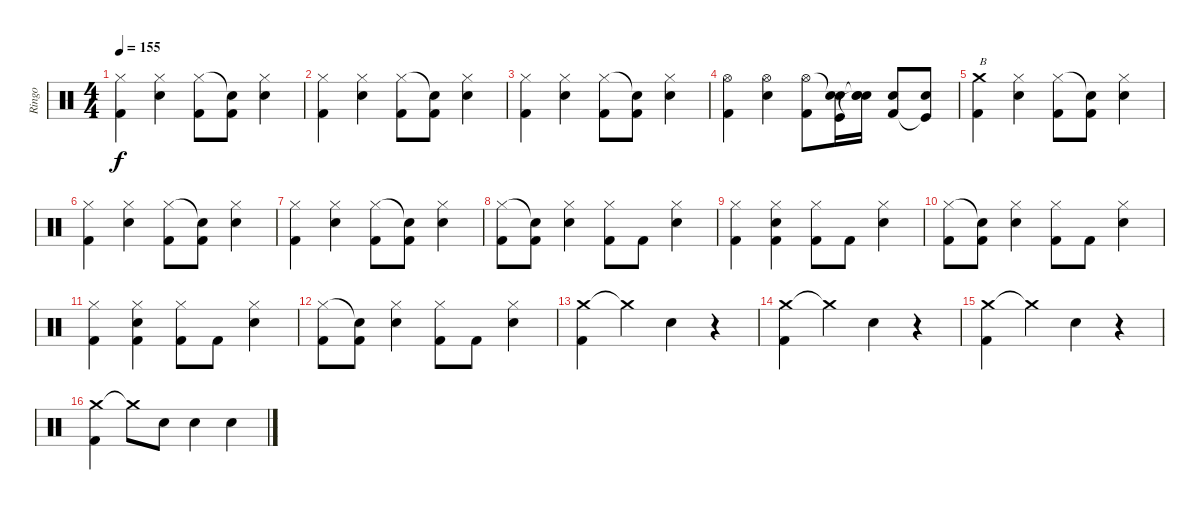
\track ("Ringo" "Ringo") {instrument percussion}
\staff {score}
\articulation defaults
\ts (4 4)
\tempo 155
\clef neutral
\ks c
("Hi-Hat (closed)" "Kick (hit) 2").4{dy f} ("Hi-Hat (closed)" "Snare (hit) 2").4 ("Hi-Hat (closed)" "Kick (hit) 2").8 ("Snare (hit)"{t} "Kick (hit) 2").8 ("Hi-Hat (closed)" "Snare (hit) 2").4 |
("Hi-Hat (closed)" "Kick (hit) 2").4 ("Hi-Hat (closed)" "Snare (hit) 2").4 ("Hi-Hat (closed)" "Kick (hit) 2").8 ("Snare (hit)"{t} "Kick (hit) 2").8 ("Hi-Hat (closed)" "Snare (hit) 2").4 |
("Hi-Hat (closed)" "Kick (hit) 2").4 ("Hi-Hat (closed)" "Snare (hit) 2").4 ("Hi-Hat (closed)" "Kick (hit) 2").8 ("Snare (hit)"{t} "Kick (hit) 2").8 ("Hi-Hat (closed)" "Snare (hit) 2").4 |
("Hi-Hat (open)" "Kick (hit) 2").4 ("Hi-Hat (open)" "Snare (hit) 2").4 ("Hi-Hat (open)" "Kick (hit) 2").8 ("Snare (hit)"{t} "Snare (hit) 2" "Kick (hit)").16 ("Snare (hit)"{t} "Snare (hit) 2" "Snare (hit)"{t}).16 ("Snare (hit) 2" "Kick (hit) 2").8 ("Snare (hit) 2" "Kick (hit)"{t}).8 |
("Crash medium (hit)" "Kick (hit) 2").4{txt "B"} ("Hi-Hat (closed)" "Snare (hit) 2").4 ("Hi-Hat (closed)" "Kick (hit) 2").8 ("Snare (hit)"{t} "Kick (hit) 2").8 ("Hi-Hat (closed)" "Snare (hit) 2").4 |
("Hi-Hat (closed)" "Kick (hit) 2").4{txt " "} ("Hi-Hat (closed)" "Snare (hit) 2").4 ("Hi-Hat (closed)" "Kick (hit) 2").8 ("Snare (hit)"{t} "Kick (hit) 2").8 ("Hi-Hat (closed)" "Snare (hit) 2").4 |
("Hi-Hat (closed)" "Kick (hit) 2").4{txt " "} ("Hi-Hat (closed)" "Snare (hit) 2").4 ("Hi-Hat (closed)" "Kick (hit) 2").8 ("Snare (hit)"{t} "Kick (hit) 2").8 ("Hi-Hat (closed)" "Snare (hit) 2").4 |
("Hi-Hat (closed)" "Kick (hit) 2").8 ("Snare (hit)"{t} "Kick (hit) 2").8 ("Hi-Hat (closed)" "Snare (hit) 2").4 ("Hi-Hat (closed)" "Kick (hit) 2").8 "Kick (hit) 2".8 ("Hi-Hat (closed)" "Snare (hit) 2").4 |
("Hi-Hat (closed)" "Kick (hit) 2").4 ("Hi-Hat (closed)" "Snare (hit) 2" "Kick (hit) 2").4 ("Hi-Hat (closed)" "Kick (hit) 2").8 "Kick (hit) 2".8 ("Hi-Hat (closed)" "Snare (hit) 2").4 |
("Hi-Hat (closed)" "Kick (hit) 2").8 ("Snare (hit)"{t} "Kick (hit) 2").8 ("Hi-Hat (closed)" "Snare (hit) 2").4 ("Hi-Hat (closed)" "Kick (hit) 2").8 "Kick (hit) 2".8 ("Hi-Hat (closed)" "Snare (hit) 2").4 |
("Hi-Hat (closed)" "Kick (hit) 2").4 ("Hi-Hat (closed)" "Snare (hit) 2" "Kick (hit) 2").4 ("Hi-Hat (closed)" "Kick (hit) 2").8 "Kick (hit) 2".8 ("Hi-Hat (closed)" "Snare (hit) 2").4 |
("Hi-Hat (closed)" "Kick (hit) 2").8 ("Snare (hit)"{t} "Kick (hit) 2").8 ("Hi-Hat (closed)" "Snare (hit) 2").4 ("Hi-Hat (closed)" "Kick (hit) 2").8 "Kick (hit) 2".8 ("Hi-Hat (closed)" "Snare (hit) 2").4 |
("Crash medium (hit)" "Kick (hit) 2").4 "Crash medium (hit)"{t}.4 "Snare (hit) 2".4 r.4 |
("Crash medium (hit)" "Kick (hit) 2").4 "Crash medium (hit)"{t}.4 "Snare (hit) 2".4 r.4 |
("Crash medium (hit)" "Kick (hit) 2").4 "Crash medium (hit)"{t}.4 "Snare (hit) 2".4 r.4 |
("Crash medium (hit)" "Kick (hit) 2").4 "Crash medium (hit)"{t}.8 "Snare (hit) 2".8 "Snare (hit) 2".4 "Snare (hit) 2".4
